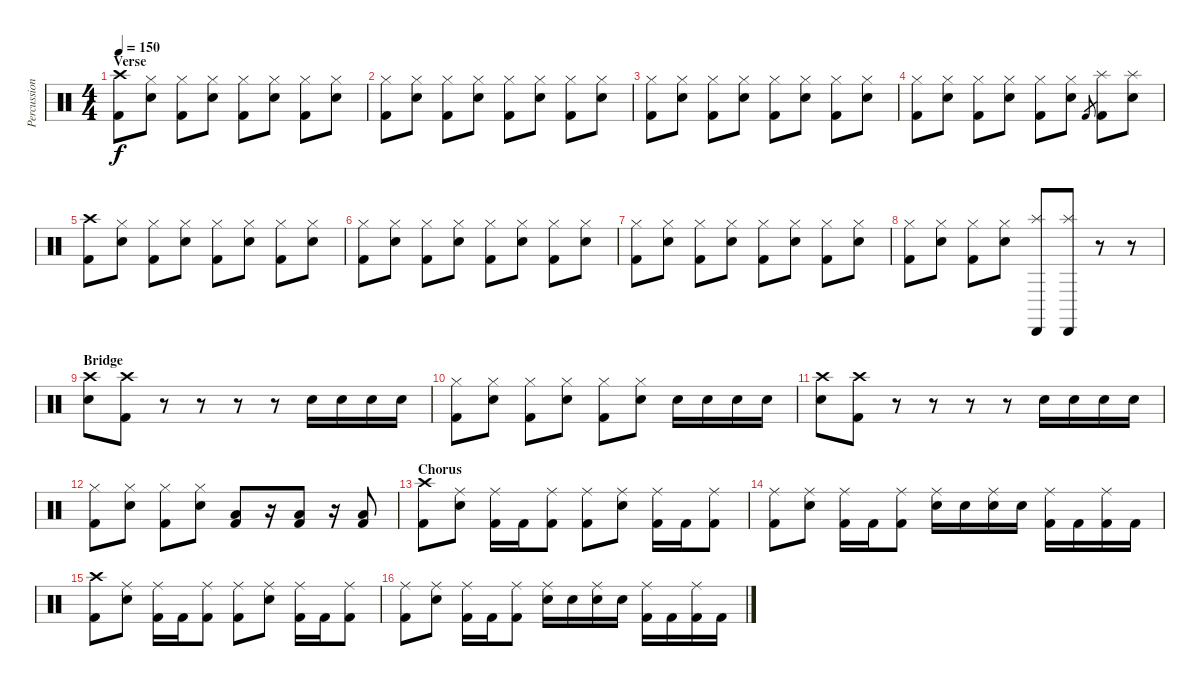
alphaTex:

\track ("Percussion" "Percussion") {instrument percussion}
\staff {score}
\articulation defaults
\ts (4 4)
\section ("" "Verse")
\tempo 150
\clef neutral
\ks c
("Crash high (hit)" "Kick (hit) 2").8{dy f} ("Hi-Hat (closed)" "Electric Snare (hit)").8 ("Hi-Hat (closed)" "Kick (hit) 2").8 ("Hi-Hat (closed)" "Electric Snare (hit)").8 ("Hi-Hat (closed)" "Kick (hit) 2").8 ("Hi-Hat (closed)" "Electric Snare (hit)").8 ("Hi-Hat (closed)" "Kick (hit) 2").8 ("Hi-Hat (closed)" "Electric Snare (hit)").8 |
("Hi-Hat (closed)" "Kick (hit) 2").8 ("Hi-Hat (closed)" "Electric Snare (hit)").8 ("Hi-Hat (closed)" "Kick (hit) 2").8 ("Hi-Hat (closed)" "Electric Snare (hit)").8 ("Hi-Hat (closed)" "Kick (hit) 2").8 ("Hi-Hat (closed)" "Electric Snare (hit)").8 ("Hi-Hat (closed)" "Kick (hit) 2").8 ("Hi-Hat (closed)" "Electric Snare (hit)").8 |
("Hi-Hat (closed)" "Kick (hit) 2").8 ("Hi-Hat (closed)" "Electric Snare (hit)").8 ("Hi-Hat (closed)" "Kick (hit) 2").8 ("Hi-Hat (closed)" "Electric Snare (hit)").8 ("Hi-Hat (closed)" "Kick (hit) 2").8 ("Hi-Hat (closed)" "Electric Snare (hit)").8 ("Hi-Hat (closed)" "Kick (hit) 2").8 ("Hi-Hat (closed)" "Electric Snare (hit)").8 |
("Hi-Hat (closed)" "Kick (hit) 2").8 ("Hi-Hat (closed)" "Electric Snare (hit)").8 ("Hi-Hat (closed)" "Kick (hit) 2").8 ("Hi-Hat (closed)" "Electric Snare (hit)").8 ("Hi-Hat (closed)" "Kick (hit) 2").8 ("Hi-Hat (closed)" "Electric Snare (hit)").8 "Kick (hit) 2".8{gr} ("Splash (hit)" "Kick (hit) 2").8 ("Splash (hit)" "Electric Snare (hit)").8 |
("Crash high (hit)" "Kick (hit) 2").8 ("Hi-Hat (closed)" "Electric Snare (hit)").8 ("Hi-Hat (closed)" "Kick (hit) 2").8 ("Hi-Hat (closed)" "Electric Snare (hit)").8 ("Hi-Hat (closed)" "Kick (hit) 2").8 ("Hi-Hat (closed)" "Electric Snare (hit)").8 ("Hi-Hat (closed)" "Kick (hit) 2").8 ("Hi-Hat (closed)" "Electric Snare (hit)").8 |
("Hi-Hat (closed)" "Kick (hit) 2").8 ("Hi-Hat (closed)" "Electric Snare (hit)").8 ("Hi-Hat (closed)" "Kick (hit) 2").8 ("Hi-Hat (closed)" "Electric Snare (hit)").8 ("Hi-Hat (closed)" "Kick (hit) 2").8 ("Hi-Hat (closed)" "Electric Snare (hit)").8 ("Hi-Hat (closed)" "Kick (hit) 2").8 ("Hi-Hat (closed)" "Electric Snare (hit)").8 |
("Hi-Hat (closed)" "Kick (hit) 2").8 ("Hi-Hat (closed)" "Electric Snare (hit)").8 ("Hi-Hat (closed)" "Kick (hit) 2").8 ("Hi-Hat (closed)" "Electric Snare (hit)").8 ("Hi-Hat (closed)" "Kick (hit) 2").8 ("Hi-Hat (closed)" "Electric Snare (hit)").8 ("Hi-Hat (closed)" "Kick (hit) 2").8 ("Hi-Hat (closed)" "Electric Snare (hit)").8 |
("Hi-Hat (closed)" "Kick (hit) 2").8 ("Hi-Hat (closed)" "Electric Snare (hit)").8 ("Hi-Hat (closed)" "Kick (hit) 2").8 ("Hi-Hat (closed)" "Electric Snare (hit)").8 ("Splash (hit)" "Cabasa (hit)").8 ("Splash (hit)" "Cabasa (hit)").8 r.8 r.8 |
\section ("" "Bridge")
("Crash high (hit)" "Electric Snare (hit)").8 ("Crash high (hit)" "Kick (hit) 2").8 r.8 r.8 r.8 r.8 "Electric Snare (hit)".16 "Electric Snare (hit)".16 "Electric Snare (hit)".16 "Electric Snare (hit)".16 |
("Hi-Hat (closed)" "Kick (hit) 2").8 ("Hi-Hat (closed)" "Electric Snare (hit)").8 ("Hi-Hat (closed)" "Kick (hit) 2").8 ("Hi-Hat (closed)" "Electric Snare (hit)").8 ("Hi-Hat (closed)" "Kick (hit) 2").8 ("Hi-Hat (closed)" "Electric Snare (hit)").8 "Electric Snare (hit)".16 "Electric Snare (hit)".16 "Electric Snare (hit)".16 "Electric Snare (hit)".16 |
("Crash high (hit)" "Electric Snare (hit)").8 ("Crash high (hit)" "Kick (hit) 2").8 r.8 r.8 r.8 r.8 "Electric Snare (hit)".16 "Electric Snare (hit)".16 "Electric Snare (hit)".16 "Electric Snare (hit)".16 |
("Hi-Hat (closed)" "Kick (hit) 2").8 ("Hi-Hat (closed)" "Electric Snare (hit)").8 ("Hi-Hat (closed)" "Kick (hit) 2").8 ("Hi-Hat (closed)" "Electric Snare (hit)").8 ("Low Floor Tom (hit)" "Kick (hit) 2").8 r.16 ("Low Floor Tom (hit)" "Kick (hit) 2").8 r.16 ("Low Floor Tom (hit)" "Kick (hit) 2").8 |
\section ("" "Chorus")
("Crash high (hit)" "Kick (hit) 2").8 ("Ride (middle)" "Electric Snare (hit)").8 ("Ride (middle)" "Kick (hit) 2").16 "Kick (hit) 2".16 ("Ride (middle)" "Kick (hit) 2").8 ("Ride (middle)" "Kick (hit) 2").8 ("Ride (middle)" "Electric Snare (hit)").8 ("Ride (middle)" "Kick (hit) 2").16 "Kick (hit) 2".16 ("Ride (middle)" "Kick (hit) 2").8 |
("Ride (middle)" "Kick (hit) 2").8 ("Ride (middle)" "Electric Snare (hit)").8 ("Ride (middle)" "Kick (hit) 2").16 "Kick (hit) 2".16 ("Ride (middle)" "Kick (hit) 2").8 ("Ride (middle)" "Electric Snare (hit)").16 "Electric Snare (hit)".16 ("Ride (middle)" "Electric Snare (hit)").16 "Electric Snare (hit)".16 ("Ride (middle)" "Kick (hit) 2").16 "Kick (hit) 2".16 ("Ride (middle)" "Kick (hit) 2").16 "Kick (hit) 2".16 |
("Crash high (hit)" "Kick (hit) 2").8 ("Ride (middle)" "Electric Snare (hit)").8 ("Ride (middle)" "Kick (hit) 2").16 "Kick (hit) 2".16 ("Ride (middle)" "Kick (hit) 2").8 ("Ride (middle)" "Kick (hit) 2").8 ("Ride (middle)" "Electric Snare (hit)").8 ("Ride (middle)" "Kick (hit) 2").16 "Kick (hit) 2".16 ("Ride (middle)" "Kick (hit) 2").8 |
("Ride (middle)" "Kick (hit) 2").8 ("Ride (middle)" "Electric Snare (hit)").8 ("Ride (middle)" "Kick (hit) 2").16 "Kick (hit) 2".16 ("Ride (middle)" "Kick (hit) 2").8 ("Ride (middle)" "Electric Snare (hit)").16 "Electric Snare (hit)".16 ("Ride (middle)" "Electric Snare (hit)").16 "Electric Snare (hit)".16 ("Ride (middle)" "Kick (hit) 2").16 "Kick (hit) 2".16 ("Ride (middle)" "Kick (hit) 2").16 "Kick (hit) 2".16
